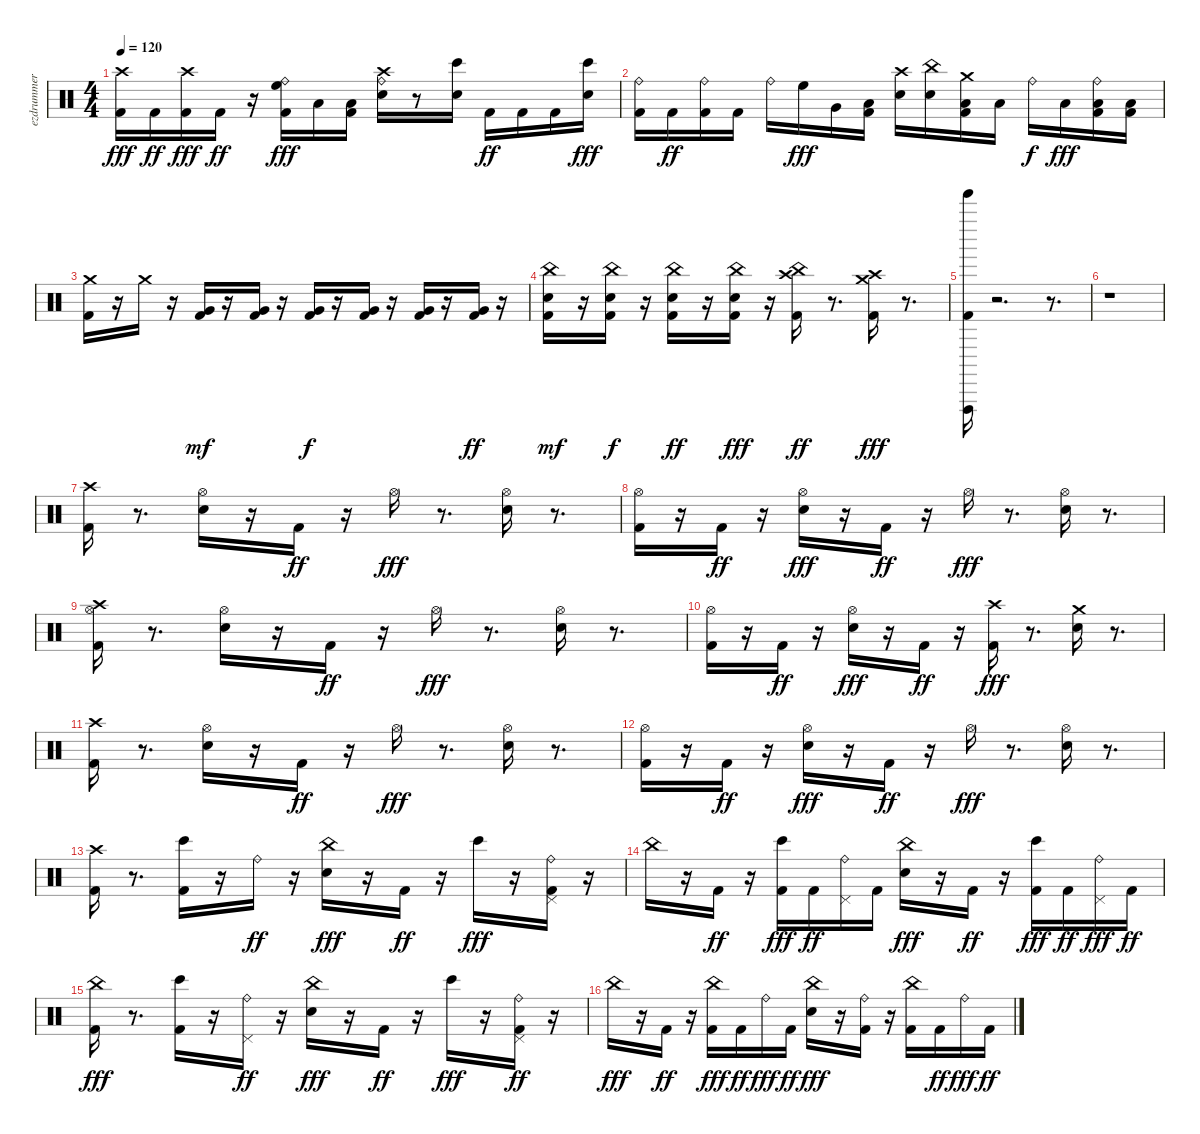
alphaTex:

\track ("ezdrummer 02" "ezdrummer ") {instrument percussion}
\staff {score}
\articulation defaults
\ts (4 4)
\tempo 120
\clef neutral
\ks c
("Kick (hit) 2" "Crash high (hit)").16{dy fff} "Kick (hit) 2".16{dy ff} ("Kick (hit) 2" "Crash high (hit)").16{dy fff} "Kick (hit) 2".16{dy ff} r.16 ("Kick (hit) 2" "High Floor Tom (hit)" "Ride (bell)").16{dy fff} "Low Tom (hit)".16 ("Kick (hit) 2" "Low Tom (hit)").16 ("Snare (hit) 2" "Crash high (hit)" "Ride (bell)").16 r.8 ("Snare (hit) 2" "Bongo High (hit)").16 "Kick (hit) 2".16{dy ff} "Kick (hit) 2".16 "Kick (hit) 2".16 ("Snare (hit) 2" "Bongo High (hit)").16{dy fff} |
("Kick (hit) 2" "Ride (bell)").16 "Kick (hit) 2".16{dy ff} ("Kick (hit) 2" "Ride (bell)").16 "Kick (hit) 2".16 "Ride (bell)".16 "High Floor Tom (hit)".16{dy fff} "Very Low Tom (hit)".16 ("Kick (hit) 2" "Low Floor Tom (hit)").16 ("Snare (hit) 2" "Crash high (hit)").16 ("Snare (hit) 2" "China (hit)").16 ("Kick (hit) 2" "Low Floor Tom (hit)" "Crash medium (hit)").16 "Low Floor Tom (hit)".16 "Ride (bell)".16{dy f} "Low Tom (hit)".16{dy fff} ("Kick (hit) 2" "Low Floor Tom (hit)" "Ride (bell)").16 ("Kick (hit) 2" "Low Floor Tom (hit)").16 |
("Kick (hit) 2" "Crash medium (hit)").16 r.16 "Crash medium (hit)".16 r.16 ("Kick (hit) 2" "Very Low Tom (hit)").16{dy mf} r.16 ("Kick (hit) 2" "Very Low Tom (hit)").16 r.16 ("Kick (hit) 2" "Very Low Tom (hit)").16{dy f} r.16 ("Kick (hit) 2" "Very Low Tom (hit)").16 r.16 ("Kick (hit) 2" "Very Low Tom (hit)").16 r.16 ("Kick (hit) 2" "Very Low Tom (hit)").16{dy ff} r.16 |
("Kick (hit) 2" "Snare (hit) 2" "China (hit)").16{dy mf} r.16 ("Kick (hit) 2" "Snare (hit) 2" "China (hit)").16{dy f} r.16 ("Kick (hit) 2" "Snare (hit) 2" "China (hit)").16{dy ff} r.16 ("Kick (hit) 2" "Snare (hit) 2" "China (hit)").16{dy fff} r.16 ("Kick (hit) 2" "Crash high (hit)" "China (hit)").16{dy ff} r.8{d} ("Kick (hit) 2" "Crash high (hit)" "Crash medium (hit)").16{dy fff} r.8{d} |
("Kick (hit) 2" "Vibraslap (hit)" "Tinkle Bell (hit)").16 r.2{d} r.8{d} |
r.1 |
("Kick (hit) 2" "Crash high (hit)").16 r.8{d} ("Snare (hit) 2" "Hi-Hat (open)").16 r.16 "Kick (hit) 2".16{dy ff} r.16 "Hi-Hat (open)".16{dy fff} r.8{d} ("Snare (hit) 2" "Hi-Hat (open)").16 r.8{d} |
("Kick (hit) 2" "Hi-Hat (open)").16 r.16 "Kick (hit) 2".16{dy ff} r.16 ("Snare (hit) 2" "Hi-Hat (open)").16{dy fff} r.16 "Kick (hit) 2".16{dy ff} r.16 "Hi-Hat (open)".16{dy fff} r.8{d} ("Snare (hit) 2" "Hi-Hat (open)").16 r.8{d} |
("Kick (hit) 2" "Hi-Hat (open)" "Crash high (hit)").16 r.8{d} ("Snare (hit) 2" "Hi-Hat (open)").16 r.16 "Kick (hit) 2".16{dy ff} r.16 "Hi-Hat (open)".16{dy fff} r.8{d} ("Snare (hit) 2" "Hi-Hat (open)").16 r.8{d} |
("Kick (hit) 2" "Hi-Hat (open)").16 r.16 "Kick (hit) 2".16{dy ff} r.16 ("Snare (hit) 2" "Hi-Hat (open)").16{dy fff} r.16 "Kick (hit) 2".16{dy ff} r.16 ("Kick (hit) 2" "Crash high (hit)").16{dy fff} r.8{d} ("Snare (hit) 2" "Crash medium (hit)").16 r.8{d} |
("Kick (hit) 2" "Crash high (hit)").16 r.8{d} ("Snare (hit) 2" "Hi-Hat (open)").16 r.16 "Kick (hit) 2".16{dy ff} r.16 "Hi-Hat (open)".16{dy fff} r.8{d} ("Snare (hit) 2" "Hi-Hat (open)").16 r.8{d} |
("Kick (hit) 2" "Hi-Hat (open)").16 r.16 "Kick (hit) 2".16{dy ff} r.16 ("Snare (hit) 2" "Hi-Hat (open)").16{dy fff} r.16 "Kick (hit) 2".16{dy ff} r.16 "Hi-Hat (open)".16{dy fff} r.8{d} ("Snare (hit) 2" "Hi-Hat (open)").16 r.8{d} |
("Kick (hit) 2" "Crash high (hit)").16 r.8{d} ("Kick (hit) 2" "Bongo High (hit)").16 r.16 "Ride (bell)".16{dy ff} r.16 ("Snare (hit) 2" "China (hit)").16{dy fff} r.16 "Kick (hit) 2".16{dy ff} r.16 "Bongo High (hit)".16{dy fff} r.16 ("Kick (hit) 2" "Pedal Hi-Hat (hit)" "Ride (bell)").16 r.16 |
"China (hit)".16 r.16 "Kick (hit) 2".16{dy ff} r.16 ("Kick (hit) 2" "Bongo High (hit)").16{dy fff} "Kick (hit) 2".16{dy ff} ("Pedal Hi-Hat (hit)" "Ride (bell)").16 "Kick (hit) 2".16 ("Snare (hit) 2" "China (hit)").16{dy fff} r.16 "Kick (hit) 2".16{dy ff} r.16 ("Kick (hit) 2" "Bongo High (hit)").16{dy fff} "Kick (hit) 2".16{dy ff} ("Pedal Hi-Hat (hit)" "Ride (bell)").16{dy fff} "Kick (hit) 2".16{dy ff} |
("Kick (hit) 2" "China (hit)").16{dy fff} r.8{d} ("Kick (hit) 2" "Bongo High (hit)").16 r.16 ("Pedal Hi-Hat (hit)" "Ride (bell)").16{dy ff} r.16 ("Snare (hit) 2" "China (hit)").16{dy fff} r.16 "Kick (hit) 2".16{dy ff} r.16 "Bongo High (hit)".16{dy fff} r.16 ("Kick (hit) 2" "Pedal Hi-Hat (hit)" "Ride (bell)").16{dy ff} r.16 |
"China (hit)".16{dy fff} r.16 "Kick (hit) 2".16{dy ff} r.16 ("Kick (hit) 2" "China (hit)").16{dy fff} "Kick (hit) 2".16{dy ff} "Ride (bell)".16{dy fff} "Kick (hit) 2".16{dy ff} ("Snare (hit) 2" "China (hit)").16{dy fff} r.16 ("Kick (hit) 2" "Ride (bell)").16 r.16 ("Kick (hit) 2" "China (hit)").16 "Kick (hit) 2".16{dy ff} "Ride (bell)".16{dy fff} "Kick (hit) 2".16{dy ff}
